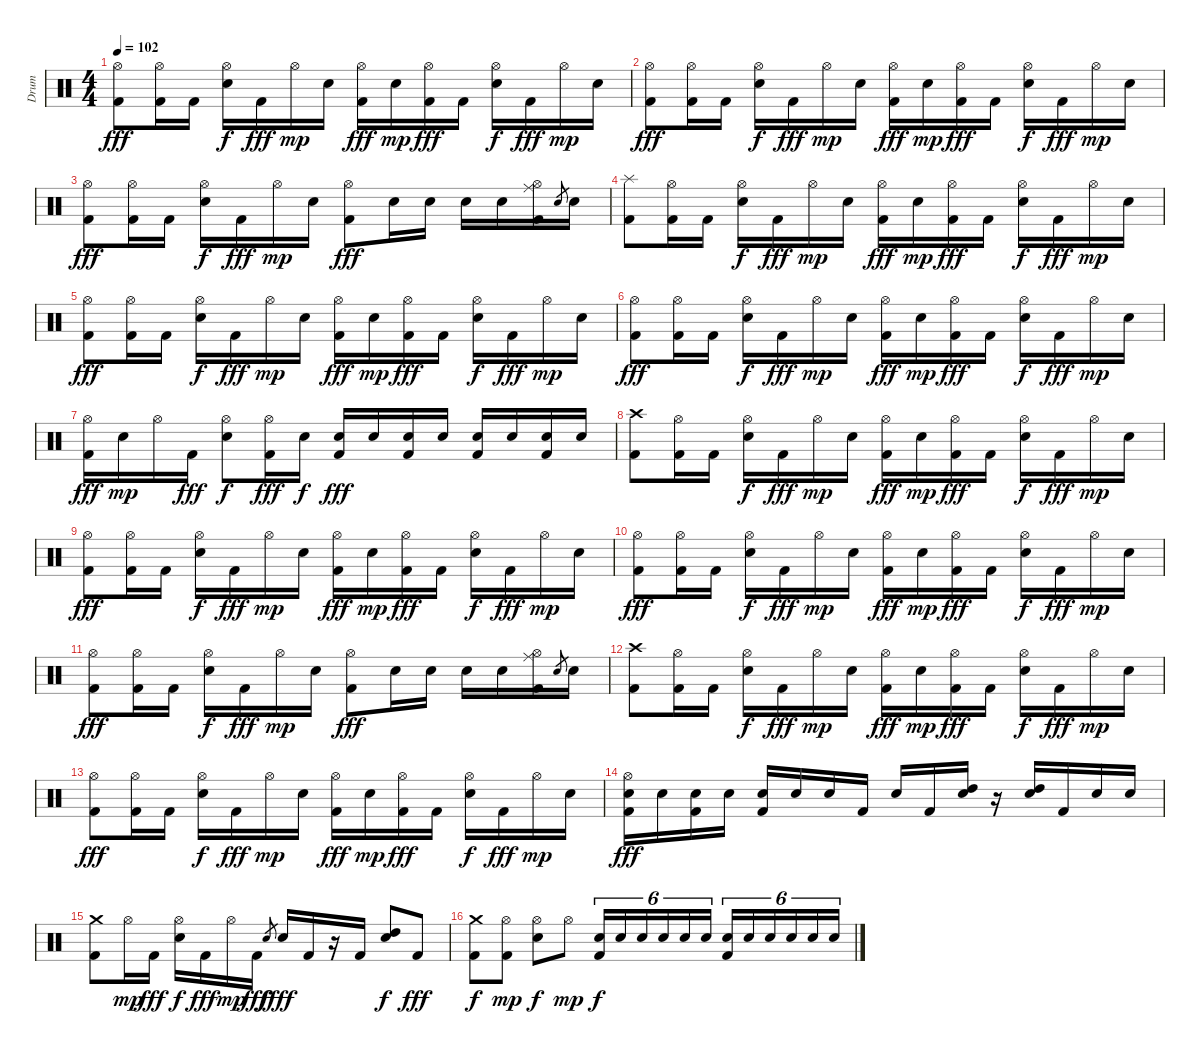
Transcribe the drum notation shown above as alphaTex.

\track ("Drum" "Drum") {instrument percussion}
\staff {score}
\articulation defaults
\ts (4 4)
\tempo 102
\clef neutral
\ks c
("Hi-Hat (open)" "Kick (hit) 2").8{dy fff} ("Hi-Hat (open)" "Kick (hit) 2").16 "Kick (hit) 2".16 ("Hi-Hat (open)" "Electric Snare (hit)").16{dy f} "Kick (hit) 2".16{dy fff} "Hi-Hat (open)".16{dy mp} "Electric Snare (hit)".16 ("Hi-Hat (open)" "Kick (hit) 2").16{dy fff} "Electric Snare (hit)".16{dy mp} ("Hi-Hat (open)" "Kick (hit) 2").16{dy fff} "Kick (hit) 2".16 ("Hi-Hat (open)" "Electric Snare (hit)").16{dy f} "Kick (hit) 2".16{dy fff} "Hi-Hat (open)".16{dy mp} "Electric Snare (hit)".16 |
("Hi-Hat (open)" "Kick (hit) 2").8{dy fff} ("Hi-Hat (open)" "Kick (hit) 2").16 "Kick (hit) 2".16 ("Hi-Hat (open)" "Electric Snare (hit)").16{dy f} "Kick (hit) 2".16{dy fff} "Hi-Hat (open)".16{dy mp} "Electric Snare (hit)".16 ("Hi-Hat (open)" "Kick (hit) 2").16{dy fff} "Electric Snare (hit)".16{dy mp} ("Hi-Hat (open)" "Kick (hit) 2").16{dy fff} "Kick (hit) 2".16 ("Hi-Hat (open)" "Electric Snare (hit)").16{dy f} "Kick (hit) 2".16{dy fff} "Hi-Hat (open)".16{dy mp} "Electric Snare (hit)".16 |
("Hi-Hat (open)" "Kick (hit) 2").8{dy fff} ("Hi-Hat (open)" "Kick (hit) 2").16 "Kick (hit) 2".16 ("Hi-Hat (open)" "Electric Snare (hit)").16{dy f} "Kick (hit) 2".16{dy fff} "Hi-Hat (open)".16{dy mp} "Electric Snare (hit)".16 ("Hi-Hat (open)" "Kick (hit) 2").8{dy fff} "Electric Snare (hit)".16 "Electric Snare (hit)".16 "Electric Snare (hit)".16 "Electric Snare (hit)".16 ("Ride (middle)" "Hi-Hat (open)" "Kick (hit) 2").16 "Electric Snare (hit)".8{gr} "Electric Snare (hit)".16 |
("Splash (hit)" "Kick (hit) 2").8 ("Hi-Hat (open)" "Kick (hit) 2").16 "Kick (hit) 2".16 ("Hi-Hat (open)" "Electric Snare (hit)").16{dy f} "Kick (hit) 2".16{dy fff} "Hi-Hat (open)".16{dy mp} "Electric Snare (hit)".16 ("Hi-Hat (open)" "Kick (hit) 2").16{dy fff} "Electric Snare (hit)".16{dy mp} ("Hi-Hat (open)" "Kick (hit) 2").16{dy fff} "Kick (hit) 2".16 ("Hi-Hat (open)" "Electric Snare (hit)").16{dy f} "Kick (hit) 2".16{dy fff} "Hi-Hat (open)".16{dy mp} "Electric Snare (hit)".16 |
("Hi-Hat (open)" "Kick (hit) 2").8{dy fff} ("Hi-Hat (open)" "Kick (hit) 2").16 "Kick (hit) 2".16 ("Hi-Hat (open)" "Electric Snare (hit)").16{dy f} "Kick (hit) 2".16{dy fff} "Hi-Hat (open)".16{dy mp} "Electric Snare (hit)".16 ("Hi-Hat (open)" "Kick (hit) 2").16{dy fff} "Electric Snare (hit)".16{dy mp} ("Hi-Hat (open)" "Kick (hit) 2").16{dy fff} "Kick (hit) 2".16 ("Hi-Hat (open)" "Electric Snare (hit)").16{dy f} "Kick (hit) 2".16{dy fff} "Hi-Hat (open)".16{dy mp} "Electric Snare (hit)".16 |
("Hi-Hat (open)" "Kick (hit) 2").8{dy fff} ("Hi-Hat (open)" "Kick (hit) 2").16 "Kick (hit) 2".16 ("Hi-Hat (open)" "Electric Snare (hit)").16{dy f} "Kick (hit) 2".16{dy fff} "Hi-Hat (open)".16{dy mp} "Electric Snare (hit)".16 ("Hi-Hat (open)" "Kick (hit) 2").16{dy fff} "Electric Snare (hit)".16{dy mp} ("Hi-Hat (open)" "Kick (hit) 2").16{dy fff} "Kick (hit) 2".16 ("Hi-Hat (open)" "Electric Snare (hit)").16{dy f} "Kick (hit) 2".16{dy fff} "Hi-Hat (open)".16{dy mp} "Electric Snare (hit)".16 |
("Hi-Hat (open)" "Kick (hit) 2").16{dy fff} "Electric Snare (hit)".16{dy mp} "Hi-Hat (open)".16 "Kick (hit) 2".16{dy fff} ("Hi-Hat (open)" "Electric Snare (hit)").8{dy f} ("Hi-Hat (open)" "Kick (hit) 2").16{dy fff} "Electric Snare (hit)".16{dy f} ("Electric Snare (hit)" "Kick (hit) 2").16{dy fff} "Electric Snare (hit)".16 ("Electric Snare (hit)" "Kick (hit) 2").16 "Electric Snare (hit)".16 ("Electric Snare (hit)" "Kick (hit) 2").16 "Electric Snare (hit)".16 ("Electric Snare (hit)" "Kick (hit) 2").16 "Electric Snare (hit)".16 |
("Crash high (hit)" "Kick (hit) 2").8 ("Hi-Hat (open)" "Kick (hit) 2").16 "Kick (hit) 2".16 ("Hi-Hat (open)" "Electric Snare (hit)").16{dy f} "Kick (hit) 2".16{dy fff} "Hi-Hat (open)".16{dy mp} "Electric Snare (hit)".16 ("Hi-Hat (open)" "Kick (hit) 2").16{dy fff} "Electric Snare (hit)".16{dy mp} ("Hi-Hat (open)" "Kick (hit) 2").16{dy fff} "Kick (hit) 2".16 ("Hi-Hat (open)" "Electric Snare (hit)").16{dy f} "Kick (hit) 2".16{dy fff} "Hi-Hat (open)".16{dy mp} "Electric Snare (hit)".16 |
("Hi-Hat (open)" "Kick (hit) 2").8{dy fff} ("Hi-Hat (open)" "Kick (hit) 2").16 "Kick (hit) 2".16 ("Hi-Hat (open)" "Electric Snare (hit)").16{dy f} "Kick (hit) 2".16{dy fff} "Hi-Hat (open)".16{dy mp} "Electric Snare (hit)".16 ("Hi-Hat (open)" "Kick (hit) 2").16{dy fff} "Electric Snare (hit)".16{dy mp} ("Hi-Hat (open)" "Kick (hit) 2").16{dy fff} "Kick (hit) 2".16 ("Hi-Hat (open)" "Electric Snare (hit)").16{dy f} "Kick (hit) 2".16{dy fff} "Hi-Hat (open)".16{dy mp} "Electric Snare (hit)".16 |
("Hi-Hat (open)" "Kick (hit) 2").8{dy fff} ("Hi-Hat (open)" "Kick (hit) 2").16 "Kick (hit) 2".16 ("Hi-Hat (open)" "Electric Snare (hit)").16{dy f} "Kick (hit) 2".16{dy fff} "Hi-Hat (open)".16{dy mp} "Electric Snare (hit)".16 ("Hi-Hat (open)" "Kick (hit) 2").16{dy fff} "Electric Snare (hit)".16{dy mp} ("Hi-Hat (open)" "Kick (hit) 2").16{dy fff} "Kick (hit) 2".16 ("Hi-Hat (open)" "Electric Snare (hit)").16{dy f} "Kick (hit) 2".16{dy fff} "Hi-Hat (open)".16{dy mp} "Electric Snare (hit)".16 |
("Hi-Hat (open)" "Kick (hit) 2").8{dy fff} ("Hi-Hat (open)" "Kick (hit) 2").16 "Kick (hit) 2".16 ("Hi-Hat (open)" "Electric Snare (hit)").16{dy f} "Kick (hit) 2".16{dy fff} "Hi-Hat (open)".16{dy mp} "Electric Snare (hit)".16 ("Hi-Hat (open)" "Kick (hit) 2").8{dy fff} "Electric Snare (hit)".16 "Electric Snare (hit)".16 "Electric Snare (hit)".16 "Electric Snare (hit)".16 ("Ride (middle)" "Hi-Hat (open)" "Kick (hit) 2").16 "Electric Snare (hit)".8{gr} "Electric Snare (hit)".16 |
("Crash high (hit)" "Kick (hit) 2").8 ("Hi-Hat (open)" "Kick (hit) 2").16 "Kick (hit) 2".16 ("Hi-Hat (open)" "Electric Snare (hit)").16{dy f} "Kick (hit) 2".16{dy fff} "Hi-Hat (open)".16{dy mp} "Electric Snare (hit)".16 ("Hi-Hat (open)" "Kick (hit) 2").16{dy fff} "Electric Snare (hit)".16{dy mp} ("Hi-Hat (open)" "Kick (hit) 2").16{dy fff} "Kick (hit) 2".16 ("Hi-Hat (open)" "Electric Snare (hit)").16{dy f} "Kick (hit) 2".16{dy fff} "Hi-Hat (open)".16{dy mp} "Electric Snare (hit)".16 |
("Hi-Hat (open)" "Kick (hit) 2").8{dy fff} ("Hi-Hat (open)" "Kick (hit) 2").16 "Kick (hit) 2".16 ("Hi-Hat (open)" "Electric Snare (hit)").16{dy f} "Kick (hit) 2".16{dy fff} "Hi-Hat (open)".16{dy mp} "Electric Snare (hit)".16 ("Hi-Hat (open)" "Kick (hit) 2").16{dy fff} "Electric Snare (hit)".16{dy mp} ("Hi-Hat (open)" "Kick (hit) 2").16{dy fff} "Kick (hit) 2".16 ("Hi-Hat (open)" "Electric Snare (hit)").16{dy f} "Kick (hit) 2".16{dy fff} "Hi-Hat (open)".16{dy mp} "Electric Snare (hit)".16 |
("Hi-Hat (open)" "Electric Snare (hit)" "Kick (hit) 2").16{dy fff} "Electric Snare (hit)".16 ("Electric Snare (hit)" "Kick (hit) 2").16 "Electric Snare (hit)".16 ("Electric Snare (hit)" "Kick (hit) 2").16 "Electric Snare (hit)".16 "Electric Snare (hit)".16 "Kick (hit) 2".16 "Electric Snare (hit)".16 "Kick (hit) 2".16 ("High Tom (hit)" "Electric Snare (hit)").16 r.16 ("High Tom (hit)" "Electric Snare (hit)").16 "Kick (hit) 2".16 "Electric Snare (hit)".16 "Electric Snare (hit)".16 |
("Crash medium (hit)" "Kick (hit) 2").8 "Hi-Hat (open)".16{dy mp} "Kick (hit) 2".16{dy fff} ("Hi-Hat (open)" "Electric Snare (hit)").16{dy f} "Kick (hit) 2".16{dy fff} "Hi-Hat (open)".16{dy mp} "Kick (hit) 2".16{dy fff} "Electric Snare (hit)".8{gr dy f} "Electric Snare (hit)".16{dy fff} "Kick (hit) 2".16 r.16 "Kick (hit) 2".16 ("High Tom (hit)" "Electric Snare (hit)").8{dy f} "Kick (hit) 2".8{dy fff} |
("Crash medium (hit)" "Kick (hit) 2").8{dy f} ("Hi-Hat (open)" "Kick (hit) 2").8{dy mp} ("Hi-Hat (open)" "Electric Snare (hit)").8{dy f} "Hi-Hat (open)".8{dy mp} ("Electric Snare (hit)" "Kick (hit) 2").16{tu (6 4) dy f} "Electric Snare (hit)".16{tu (6 4)} "Electric Snare (hit)".16{tu (6 4)} "Electric Snare (hit)".16{tu (6 4)} "Electric Snare (hit)".16{tu (6 4)} "Electric Snare (hit)".16{tu (6 4)} ("Electric Snare (hit)" "Kick (hit) 2").16{tu (6 4)} "Electric Snare (hit)".16{tu (6 4)} "Electric Snare (hit)".16{tu (6 4)} "Electric Snare (hit)".16{tu (6 4)} "Electric Snare (hit)".16{tu (6 4)} "Electric Snare (hit)".16{tu (6 4)}
